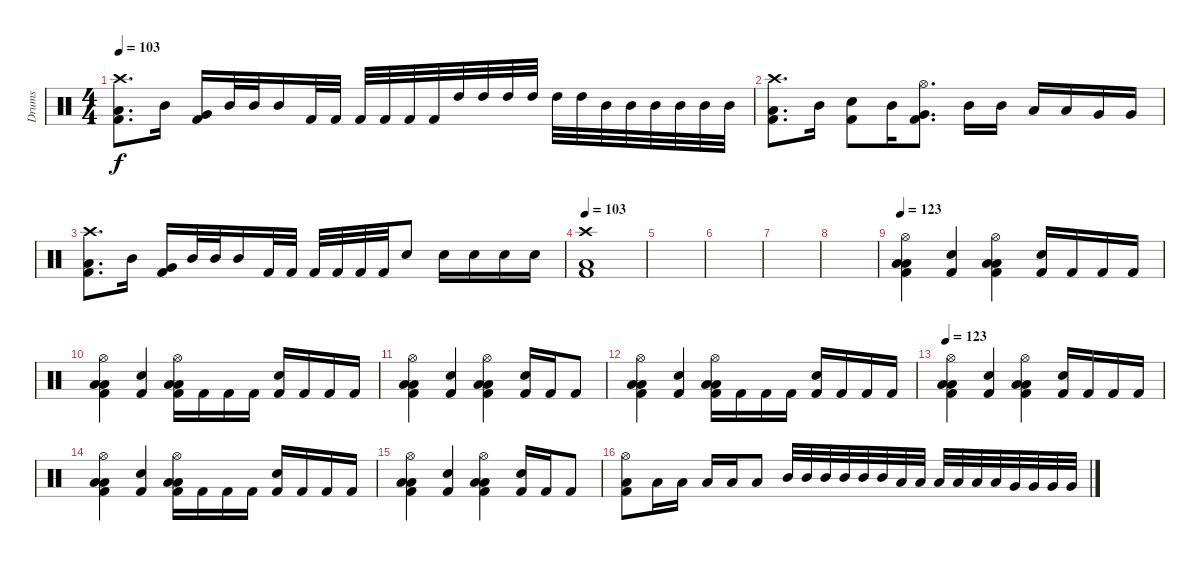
\track ("Drums" "Drums") {instrument percussion}
\staff {score}
\articulation defaults
\ts (4 4)
\tempo 103
\clef neutral
\ks c
("Crash high (hit)" "Low Floor Tom (hit)" "Kick (hit) 2").8{d dy f} "Mid Tom (hit)".16 ("Very Low Tom (hit)" "Kick (hit) 2").16 "Mid Tom (hit)".32 "Mid Tom (hit)".32 "Mid Tom (hit)".16 "Kick (hit) 2".32 "Kick (hit) 2".32 "Kick (hit) 2".32 "Kick (hit) 2".32 "Kick (hit) 2".32 "Kick (hit) 2".32 "High Tom (hit)".32 "High Tom (hit)".32 "High Tom (hit)".32 "High Tom (hit)".32 "High Tom (hit)".32 "High Tom (hit)".32 "Mid Tom (hit)".32 "Mid Tom (hit)".32 "Mid Tom (hit)".32 "Mid Tom (hit)".32 "Mid Tom (hit)".32 "Mid Tom (hit)".32 |
("Crash high (hit)" "Low Floor Tom (hit)" "Kick (hit) 2").8{d} "Mid Tom (hit)".16 ("Snare (hit) 2" "Kick (hit) 2").8 "Mid Tom (hit)".16 ("Hi-Hat (open)" "Very Low Tom (hit)" "Kick (hit) 2").8{d} "Mid Tom (hit)".16 "Mid Tom (hit)".16 "Low Tom (hit)".16 "Low Tom (hit)".16 "Very Low Tom (hit)".16 "Very Low Tom (hit)".16 |
("Crash high (hit)" "Low Floor Tom (hit)" "Kick (hit) 2").8{d} "Mid Tom (hit)".16 ("Very Low Tom (hit)" "Kick (hit) 2").16 "Mid Tom (hit)".32 "Mid Tom (hit)".32 "Mid Tom (hit)".16 "Kick (hit) 2".32 "Kick (hit) 2".32 "Kick (hit) 2".32 "Kick (hit) 2".32 "Kick (hit) 2".32 "Kick (hit) 2".32 "Electric Snare (hit)".8 "Electric Snare (hit)".16 "Electric Snare (hit)".16 "Electric Snare (hit)".16 "Electric Snare (hit)".16 |
\tempo 103
("Crash high (hit)" "Low Floor Tom (hit)" "Kick (hit) 2").1 |
|
|
|
|
\tempo 123
("Hi-Hat (open)" "Low Floor Tom (hit)" "Low Floor Tom (hit)" "Kick (hit) 2").4 ("Snare (hit) 2" "Kick (hit) 2").4 ("Hi-Hat (open)" "Low Floor Tom (hit)" "Low Floor Tom (hit)" "Kick (hit) 2").4 ("Snare (hit) 2" "Kick (hit) 2").16 "Kick (hit) 2".16 "Kick (hit) 2".16 "Kick (hit) 2".16 |
("Hi-Hat (open)" "Low Floor Tom (hit)" "Low Floor Tom (hit)" "Kick (hit) 2").4 ("Snare (hit) 2" "Kick (hit) 2").4 ("Hi-Hat (open)" "Low Floor Tom (hit)" "Low Floor Tom (hit)" "Kick (hit) 2").16 "Kick (hit) 2".16 "Kick (hit) 2".16 "Kick (hit) 2".16 ("Snare (hit) 2" "Kick (hit) 2").16 "Kick (hit) 2".16 "Kick (hit) 2".16 "Kick (hit) 2".16 |
("Hi-Hat (open)" "Low Floor Tom (hit)" "Low Floor Tom (hit)" "Kick (hit) 2").4 ("Snare (hit) 2" "Kick (hit) 2").4 ("Hi-Hat (open)" "Low Floor Tom (hit)" "Low Floor Tom (hit)" "Kick (hit) 2").4 ("Snare (hit) 2" "Kick (hit) 2").16 "Kick (hit) 2".16 "Kick (hit) 2".8 |
("Hi-Hat (open)" "Low Floor Tom (hit)" "Low Floor Tom (hit)" "Kick (hit) 2").4 ("Snare (hit) 2" "Kick (hit) 2").4 ("Hi-Hat (open)" "Low Floor Tom (hit)" "Low Floor Tom (hit)" "Kick (hit) 2").16 "Kick (hit) 2".16 "Kick (hit) 2".16 "Kick (hit) 2".16 ("Snare (hit) 2" "Kick (hit) 2").16 "Kick (hit) 2".16 "Kick (hit) 2".16 "Kick (hit) 2".16 |
\tempo 123
("Hi-Hat (open)" "Low Floor Tom (hit)" "Low Floor Tom (hit)" "Kick (hit) 2").4 ("Snare (hit) 2" "Kick (hit) 2").4 ("Hi-Hat (open)" "Low Floor Tom (hit)" "Low Floor Tom (hit)" "Kick (hit) 2").4 ("Snare (hit) 2" "Kick (hit) 2").16 "Kick (hit) 2".16 "Kick (hit) 2".16 "Kick (hit) 2".16 |
("Hi-Hat (open)" "Low Floor Tom (hit)" "Low Floor Tom (hit)" "Kick (hit) 2").4 ("Snare (hit) 2" "Kick (hit) 2").4 ("Hi-Hat (open)" "Low Floor Tom (hit)" "Low Floor Tom (hit)" "Kick (hit) 2").16 "Kick (hit) 2".16 "Kick (hit) 2".16 "Kick (hit) 2".16 ("Snare (hit) 2" "Kick (hit) 2").16 "Kick (hit) 2".16 "Kick (hit) 2".16 "Kick (hit) 2".16 |
("Hi-Hat (open)" "Low Floor Tom (hit)" "Low Floor Tom (hit)" "Kick (hit) 2").4 ("Snare (hit) 2" "Kick (hit) 2").4 ("Hi-Hat (open)" "Low Floor Tom (hit)" "Low Floor Tom (hit)" "Kick (hit) 2").4 ("Snare (hit) 2" "Kick (hit) 2").16 "Kick (hit) 2".16 "Kick (hit) 2".8 |
("Hi-Hat (open)" "Low Floor Tom (hit)" "Kick (hit) 2").8 "Low Floor Tom (hit)".16 "Low Floor Tom (hit)".16 "Low Floor Tom (hit)".16 "Low Floor Tom (hit)".16 "Low Tom (hit)".8 "Mid Tom (hit)".32 "Mid Tom (hit)".32 "Mid Tom (hit)".32 "Mid Tom (hit)".32 "Mid Tom (hit)".32 "Mid Tom (hit)".32 "Low Tom (hit)".32 "Low Tom (hit)".32 "Low Tom (hit)".32 "Low Tom (hit)".32 "Low Tom (hit)".32 "Low Tom (hit)".32 "Very Low Tom (hit)".32 "Very Low Tom (hit)".32 "Very Low Tom (hit)".32 "Very Low Tom (hit)".32
